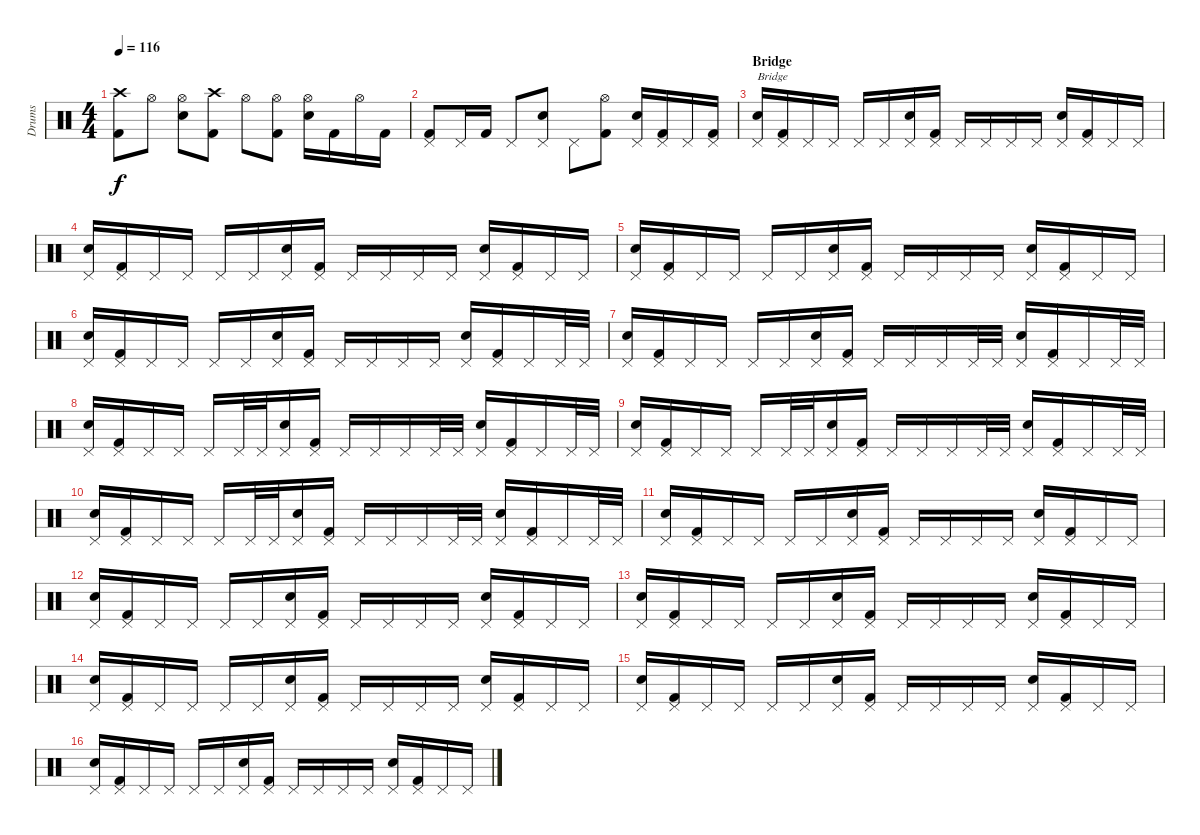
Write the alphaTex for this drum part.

\track ("Drums" "Drums") {instrument percussion}
\staff {score}
\articulation defaults
\ts (4 4)
\tempo 116
\clef neutral
\ks c
("Crash high (hit)" "Kick (hit) 2").8{dy f} "Hi-Hat (open)".8 ("Hi-Hat (open)" "Electric Snare (hit)").8 ("Crash high (hit)" "Kick (hit) 2").8 "Hi-Hat (open)".8 ("Hi-Hat (open)" "Kick (hit) 2").8 ("Hi-Hat (open)" "Electric Snare (hit)").16 "Kick (hit) 2".16 "Hi-Hat (open)".16 "Kick (hit) 2".16 |
("Pedal Hi-Hat (hit)" "Kick (hit) 2").8 "Pedal Hi-Hat (hit)".16 "Kick (hit) 2".16 "Pedal Hi-Hat (hit)".8 ("Pedal Hi-Hat (hit)" "Electric Snare (hit)").8 "Pedal Hi-Hat (hit)".8 ("Hi-Hat (open)" "Kick (hit) 2").8 ("Pedal Hi-Hat (hit)" "Electric Snare (hit)").16 ("Pedal Hi-Hat (hit)" "Kick (hit) 2").16 "Pedal Hi-Hat (hit)".16 ("Pedal Hi-Hat (hit)" "Kick (hit) 2").16 |
\section ("" "Bridge")
("Pedal Hi-Hat (hit)" "Electric Snare (hit)").16{txt "Bridge"} ("Pedal Hi-Hat (hit)" "Kick (hit) 2").16 "Pedal Hi-Hat (hit)".16 "Pedal Hi-Hat (hit)".16 "Pedal Hi-Hat (hit)".16 "Pedal Hi-Hat (hit)".16 ("Pedal Hi-Hat (hit)" "Electric Snare (hit)").16 ("Pedal Hi-Hat (hit)" "Kick (hit) 2").16 "Pedal Hi-Hat (hit)".16 "Pedal Hi-Hat (hit)".16 "Pedal Hi-Hat (hit)".16 "Pedal Hi-Hat (hit)".16 ("Pedal Hi-Hat (hit)" "Electric Snare (hit)").16 ("Pedal Hi-Hat (hit)" "Kick (hit) 2").16 "Pedal Hi-Hat (hit)".16 "Pedal Hi-Hat (hit)".16 |
("Pedal Hi-Hat (hit)" "Electric Snare (hit)").16 ("Pedal Hi-Hat (hit)" "Kick (hit) 2").16 "Pedal Hi-Hat (hit)".16 "Pedal Hi-Hat (hit)".16 "Pedal Hi-Hat (hit)".16 "Pedal Hi-Hat (hit)".16 ("Pedal Hi-Hat (hit)" "Electric Snare (hit)").16 ("Pedal Hi-Hat (hit)" "Kick (hit) 2").16 "Pedal Hi-Hat (hit)".16 "Pedal Hi-Hat (hit)".16 "Pedal Hi-Hat (hit)".16 "Pedal Hi-Hat (hit)".16 ("Pedal Hi-Hat (hit)" "Electric Snare (hit)").16 ("Pedal Hi-Hat (hit)" "Kick (hit) 2").16 "Pedal Hi-Hat (hit)".16 "Pedal Hi-Hat (hit)".16 |
("Pedal Hi-Hat (hit)" "Electric Snare (hit)").16 ("Pedal Hi-Hat (hit)" "Kick (hit) 2").16 "Pedal Hi-Hat (hit)".16 "Pedal Hi-Hat (hit)".16 "Pedal Hi-Hat (hit)".16 "Pedal Hi-Hat (hit)".16 ("Pedal Hi-Hat (hit)" "Electric Snare (hit)").16 ("Pedal Hi-Hat (hit)" "Kick (hit) 2").16 "Pedal Hi-Hat (hit)".16 "Pedal Hi-Hat (hit)".16 "Pedal Hi-Hat (hit)".16 "Pedal Hi-Hat (hit)".16 ("Pedal Hi-Hat (hit)" "Electric Snare (hit)").16 ("Pedal Hi-Hat (hit)" "Kick (hit) 2").16 "Pedal Hi-Hat (hit)".16 "Pedal Hi-Hat (hit)".16 |
("Pedal Hi-Hat (hit)" "Electric Snare (hit)").16 ("Pedal Hi-Hat (hit)" "Kick (hit) 2").16 "Pedal Hi-Hat (hit)".16 "Pedal Hi-Hat (hit)".16 "Pedal Hi-Hat (hit)".16 "Pedal Hi-Hat (hit)".16 ("Pedal Hi-Hat (hit)" "Electric Snare (hit)").16 ("Pedal Hi-Hat (hit)" "Kick (hit) 2").16 "Pedal Hi-Hat (hit)".16 "Pedal Hi-Hat (hit)".16 "Pedal Hi-Hat (hit)".16 "Pedal Hi-Hat (hit)".16 ("Pedal Hi-Hat (hit)" "Electric Snare (hit)").16 ("Pedal Hi-Hat (hit)" "Kick (hit) 2").16 "Pedal Hi-Hat (hit)".16 "Pedal Hi-Hat (hit)".32 "Pedal Hi-Hat (hit)".32 |
("Pedal Hi-Hat (hit)" "Electric Snare (hit)").16 ("Pedal Hi-Hat (hit)" "Kick (hit) 2").16 "Pedal Hi-Hat (hit)".16 "Pedal Hi-Hat (hit)".16 "Pedal Hi-Hat (hit)".16 "Pedal Hi-Hat (hit)".16 ("Pedal Hi-Hat (hit)" "Electric Snare (hit)").16 ("Pedal Hi-Hat (hit)" "Kick (hit) 2").16 "Pedal Hi-Hat (hit)".16 "Pedal Hi-Hat (hit)".16 "Pedal Hi-Hat (hit)".16 "Pedal Hi-Hat (hit)".32 "Pedal Hi-Hat (hit)".32 ("Pedal Hi-Hat (hit)" "Electric Snare (hit)").16 ("Pedal Hi-Hat (hit)" "Kick (hit) 2").16 "Pedal Hi-Hat (hit)".16 "Pedal Hi-Hat (hit)".32 "Pedal Hi-Hat (hit)".32 |
("Pedal Hi-Hat (hit)" "Electric Snare (hit)").16 ("Pedal Hi-Hat (hit)" "Kick (hit) 2").16 "Pedal Hi-Hat (hit)".16 "Pedal Hi-Hat (hit)".16 "Pedal Hi-Hat (hit)".16 "Pedal Hi-Hat (hit)".32 "Pedal Hi-Hat (hit)".32 ("Pedal Hi-Hat (hit)" "Electric Snare (hit)").16 ("Pedal Hi-Hat (hit)" "Kick (hit) 2").16 "Pedal Hi-Hat (hit)".16 "Pedal Hi-Hat (hit)".16 "Pedal Hi-Hat (hit)".16 "Pedal Hi-Hat (hit)".32 "Pedal Hi-Hat (hit)".32 ("Pedal Hi-Hat (hit)" "Electric Snare (hit)").16 ("Pedal Hi-Hat (hit)" "Kick (hit) 2").16 "Pedal Hi-Hat (hit)".16 "Pedal Hi-Hat (hit)".32 "Pedal Hi-Hat (hit)".32 |
("Pedal Hi-Hat (hit)" "Electric Snare (hit)").16 ("Pedal Hi-Hat (hit)" "Kick (hit) 2").16 "Pedal Hi-Hat (hit)".16 "Pedal Hi-Hat (hit)".16 "Pedal Hi-Hat (hit)".16 "Pedal Hi-Hat (hit)".32 "Pedal Hi-Hat (hit)".32 ("Pedal Hi-Hat (hit)" "Electric Snare (hit)").16 ("Pedal Hi-Hat (hit)" "Kick (hit) 2").16 "Pedal Hi-Hat (hit)".16 "Pedal Hi-Hat (hit)".16 "Pedal Hi-Hat (hit)".16 "Pedal Hi-Hat (hit)".32 "Pedal Hi-Hat (hit)".32 ("Pedal Hi-Hat (hit)" "Electric Snare (hit)").16 ("Pedal Hi-Hat (hit)" "Kick (hit) 2").16 "Pedal Hi-Hat (hit)".16 "Pedal Hi-Hat (hit)".32 "Pedal Hi-Hat (hit)".32 |
("Pedal Hi-Hat (hit)" "Electric Snare (hit)").16 ("Pedal Hi-Hat (hit)" "Kick (hit) 2").16 "Pedal Hi-Hat (hit)".16 "Pedal Hi-Hat (hit)".16 "Pedal Hi-Hat (hit)".16 "Pedal Hi-Hat (hit)".32 "Pedal Hi-Hat (hit)".32 ("Pedal Hi-Hat (hit)" "Electric Snare (hit)").16 ("Pedal Hi-Hat (hit)" "Kick (hit) 2").16 "Pedal Hi-Hat (hit)".16 "Pedal Hi-Hat (hit)".16 "Pedal Hi-Hat (hit)".16 "Pedal Hi-Hat (hit)".32 "Pedal Hi-Hat (hit)".32 ("Pedal Hi-Hat (hit)" "Electric Snare (hit)").16 ("Pedal Hi-Hat (hit)" "Kick (hit) 2").16 "Pedal Hi-Hat (hit)".16 "Pedal Hi-Hat (hit)".32 "Pedal Hi-Hat (hit)".32 |
("Pedal Hi-Hat (hit)" "Electric Snare (hit)").16 ("Pedal Hi-Hat (hit)" "Kick (hit) 2").16 "Pedal Hi-Hat (hit)".16 "Pedal Hi-Hat (hit)".16 "Pedal Hi-Hat (hit)".16 "Pedal Hi-Hat (hit)".16 ("Pedal Hi-Hat (hit)" "Electric Snare (hit)").16 ("Pedal Hi-Hat (hit)" "Kick (hit) 2").16 "Pedal Hi-Hat (hit)".16 "Pedal Hi-Hat (hit)".16 "Pedal Hi-Hat (hit)".16 "Pedal Hi-Hat (hit)".16 ("Pedal Hi-Hat (hit)" "Electric Snare (hit)").16 ("Pedal Hi-Hat (hit)" "Kick (hit) 2").16 "Pedal Hi-Hat (hit)".16 "Pedal Hi-Hat (hit)".16 |
("Pedal Hi-Hat (hit)" "Electric Snare (hit)").16 ("Pedal Hi-Hat (hit)" "Kick (hit) 2").16 "Pedal Hi-Hat (hit)".16 "Pedal Hi-Hat (hit)".16 "Pedal Hi-Hat (hit)".16 "Pedal Hi-Hat (hit)".16 ("Pedal Hi-Hat (hit)" "Electric Snare (hit)").16 ("Pedal Hi-Hat (hit)" "Kick (hit) 2").16 "Pedal Hi-Hat (hit)".16 "Pedal Hi-Hat (hit)".16 "Pedal Hi-Hat (hit)".16 "Pedal Hi-Hat (hit)".16 ("Pedal Hi-Hat (hit)" "Electric Snare (hit)").16 ("Pedal Hi-Hat (hit)" "Kick (hit) 2").16 "Pedal Hi-Hat (hit)".16 "Pedal Hi-Hat (hit)".16 |
("Pedal Hi-Hat (hit)" "Electric Snare (hit)").16 ("Pedal Hi-Hat (hit)" "Kick (hit) 2").16 "Pedal Hi-Hat (hit)".16 "Pedal Hi-Hat (hit)".16 "Pedal Hi-Hat (hit)".16 "Pedal Hi-Hat (hit)".16 ("Pedal Hi-Hat (hit)" "Electric Snare (hit)").16 ("Pedal Hi-Hat (hit)" "Kick (hit) 2").16 "Pedal Hi-Hat (hit)".16 "Pedal Hi-Hat (hit)".16 "Pedal Hi-Hat (hit)".16 "Pedal Hi-Hat (hit)".16 ("Pedal Hi-Hat (hit)" "Electric Snare (hit)").16 ("Pedal Hi-Hat (hit)" "Kick (hit) 2").16 "Pedal Hi-Hat (hit)".16 "Pedal Hi-Hat (hit)".16 |
("Pedal Hi-Hat (hit)" "Electric Snare (hit)").16 ("Pedal Hi-Hat (hit)" "Kick (hit) 2").16 "Pedal Hi-Hat (hit)".16 "Pedal Hi-Hat (hit)".16 "Pedal Hi-Hat (hit)".16 "Pedal Hi-Hat (hit)".16 ("Pedal Hi-Hat (hit)" "Electric Snare (hit)").16 ("Pedal Hi-Hat (hit)" "Kick (hit) 2").16 "Pedal Hi-Hat (hit)".16 "Pedal Hi-Hat (hit)".16 "Pedal Hi-Hat (hit)".16 "Pedal Hi-Hat (hit)".16 ("Pedal Hi-Hat (hit)" "Electric Snare (hit)").16 ("Pedal Hi-Hat (hit)" "Kick (hit) 2").16 "Pedal Hi-Hat (hit)".16 "Pedal Hi-Hat (hit)".16 |
("Pedal Hi-Hat (hit)" "Electric Snare (hit)").16 ("Pedal Hi-Hat (hit)" "Kick (hit) 2").16 "Pedal Hi-Hat (hit)".16 "Pedal Hi-Hat (hit)".16 "Pedal Hi-Hat (hit)".16 "Pedal Hi-Hat (hit)".16 ("Pedal Hi-Hat (hit)" "Electric Snare (hit)").16 ("Pedal Hi-Hat (hit)" "Kick (hit) 2").16 "Pedal Hi-Hat (hit)".16 "Pedal Hi-Hat (hit)".16 "Pedal Hi-Hat (hit)".16 "Pedal Hi-Hat (hit)".16 ("Pedal Hi-Hat (hit)" "Electric Snare (hit)").16 ("Pedal Hi-Hat (hit)" "Kick (hit) 2").16 "Pedal Hi-Hat (hit)".16 "Pedal Hi-Hat (hit)".16 |
("Pedal Hi-Hat (hit)" "Electric Snare (hit)").16 ("Pedal Hi-Hat (hit)" "Kick (hit) 2").16 "Pedal Hi-Hat (hit)".16 "Pedal Hi-Hat (hit)".16 "Pedal Hi-Hat (hit)".16 "Pedal Hi-Hat (hit)".16 ("Pedal Hi-Hat (hit)" "Electric Snare (hit)").16 ("Pedal Hi-Hat (hit)" "Kick (hit) 2").16 "Pedal Hi-Hat (hit)".16 "Pedal Hi-Hat (hit)".16 "Pedal Hi-Hat (hit)".16 "Pedal Hi-Hat (hit)".16 ("Pedal Hi-Hat (hit)" "Electric Snare (hit)").16 ("Pedal Hi-Hat (hit)" "Kick (hit) 2").16 "Pedal Hi-Hat (hit)".16 "Pedal Hi-Hat (hit)".16
